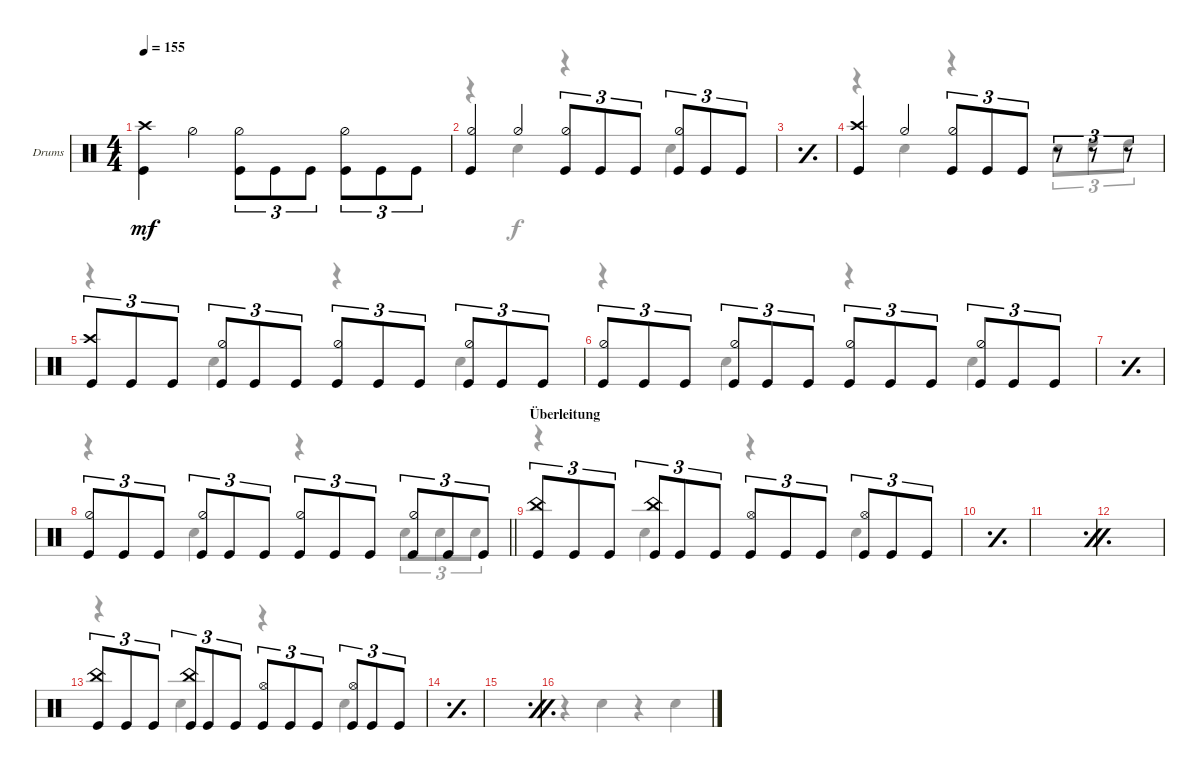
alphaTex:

\defaultSystemsLayout 4
\bracketExtendMode groupsimilarinstruments
\firstSystemTrackNameOrientation horizontal
\otherSystemsTrackNameOrientation horizontal
\track ("Drumkit" "Drums") {instrument percussion}
\staff {score}
\articulation defaults
\voice
\ts (4 4)
\tempo 155
\clef neutral
\ks c
("Kick (hit)" "Crash high (hit)").4{dy mf} "Hi-Hat (half)".4 ("Kick (hit)" "Hi-Hat (half)").8{tu (3 2)} "Kick (hit)".8{tu (3 2)} "Kick (hit)".8{tu (3 2)} ("Kick (hit)" "Hi-Hat (half)").8{tu (3 2)} "Kick (hit)".8{tu (3 2)} "Kick (hit)".8{tu (3 2)} |
("Kick (hit)" "Hi-Hat (half)").4 "Hi-Hat (half)".4 ("Kick (hit)" "Hi-Hat (half)").8{tu (3 2)} "Kick (hit)".8{tu (3 2)} "Kick (hit)".8{tu (3 2)} ("Kick (hit)" "Hi-Hat (half)").8{tu (3 2)} "Kick (hit)".8{tu (3 2)} "Kick (hit)".8{tu (3 2)} |
\simile simple
|
\simile none
("Kick (hit)" "Crash high (hit)").4 "Hi-Hat (half)".4 ("Kick (hit)" "Hi-Hat (half)").8{tu (3 2)} "Kick (hit)".8{tu (3 2)} "Kick (hit)".8{tu (3 2)} r.8{tu (3 2)} r.8{tu (3 2)} r.8{tu (3 2)} |
("Kick (hit)" "Crash high (hit)").8{tu (3 2)} "Kick (hit)".8{tu (3 2)} "Kick (hit)".8{tu (3 2)} ("Kick (hit)" "Hi-Hat (half)").8{tu (3 2)} "Kick (hit)".8{tu (3 2)} "Kick (hit)".8{tu (3 2)} ("Kick (hit)" "Hi-Hat (half)").8{tu (3 2)} "Kick (hit)".8{tu (3 2)} "Kick (hit)".8{tu (3 2)} ("Kick (hit)" "Hi-Hat (half)").8{tu (3 2)} "Kick (hit)".8{tu (3 2)} "Kick (hit)".8{tu (3 2)} |
("Kick (hit)" "Hi-Hat (half)").8{tu (3 2)} "Kick (hit)".8{tu (3 2)} "Kick (hit)".8{tu (3 2)} ("Kick (hit)" "Hi-Hat (half)").8{tu (3 2)} "Kick (hit)".8{tu (3 2)} "Kick (hit)".8{tu (3 2)} ("Kick (hit)" "Hi-Hat (half)").8{tu (3 2)} "Kick (hit)".8{tu (3 2)} "Kick (hit)".8{tu (3 2)} ("Kick (hit)" "Hi-Hat (half)").8{tu (3 2)} "Kick (hit)".8{tu (3 2)} "Kick (hit)".8{tu (3 2)} |
\simile simple
|
\simile none
\barLineRight lightlight
("Kick (hit)" "Hi-Hat (half)").8{tu (3 2)} "Kick (hit)".8{tu (3 2)} "Kick (hit)".8{tu (3 2)} ("Kick (hit)" "Hi-Hat (half)").8{tu (3 2)} "Kick (hit)".8{tu (3 2)} "Kick (hit)".8{tu (3 2)} ("Kick (hit)" "Hi-Hat (half)").8{tu (3 2)} "Kick (hit)".8{tu (3 2)} "Kick (hit)".8{tu (3 2)} ("Kick (hit)" "Hi-Hat (half)").8{tu (3 2)} "Kick (hit)".8{tu (3 2)} "Kick (hit)".8{tu (3 2)} |
\section ("" "Überleitung")
("Kick (hit)" "China (hit)").8{tu (3 2)} "Kick (hit)".8{tu (3 2)} "Kick (hit)".8{tu (3 2)} ("Kick (hit)" "China (hit)").8{tu (3 2)} "Kick (hit)".8{tu (3 2)} "Kick (hit)".8{tu (3 2)} ("Kick (hit)" "Hi-Hat (open)").8{tu (3 2)} "Kick (hit)".8{tu (3 2)} "Kick (hit)".8{tu (3 2)} ("Kick (hit)" "Hi-Hat (open)").8{tu (3 2)} "Kick (hit)".8{tu (3 2)} "Kick (hit)".8{tu (3 2)} |
\simile simple
|
\simile firstofdouble
|
\simile secondofdouble
|
\simile none
("Kick (hit)" "China (hit)").8{tu (3 2)} "Kick (hit)".8{tu (3 2)} "Kick (hit)".8{tu (3 2)} ("Kick (hit)" "China (hit)").8{tu (3 2)} "Kick (hit)".8{tu (3 2)} "Kick (hit)".8{tu (3 2)} ("Kick (hit)" "Hi-Hat (open)").8{tu (3 2)} "Kick (hit)".8{tu (3 2)} "Kick (hit)".8{tu (3 2)} ("Kick (hit)" "Hi-Hat (open)").8{tu (3 2)} "Kick (hit)".8{tu (3 2)} "Kick (hit)".8{tu (3 2)} |
\simile simple
|
\simile firstofdouble
|
\simile secondofdouble
\voice
\clef neutral
\ottava regular
\simile none
\ks c
r.4{dy ff} "Snare (hit) 2".4{dy f} r.4 "Snare (hit) 2".4 |
r.4 "Snare (hit) 2".4 r.4 "Snare (hit) 2".4 |
\simile simple
|
\simile none
r.4 "Snare (hit) 2".4 r.4 "Snare (hit) 2".8{tu (3 2)} "High Tom (hit)".8{tu (3 2)} "High Tom (hit)".8{tu (3 2)} |
r.4 "Snare (hit) 2".4 r.4 "Snare (hit) 2".4 |
r.4 "Snare (hit) 2".4 r.4 "Snare (hit) 2".4 |
\simile simple
|
\simile none
\barLineRight lightlight
r.4 "Snare (hit) 2".4 r.4 "Snare (hit) 2".8{tu (3 2)} "Snare (hit) 2".8{tu (3 2)} "Snare (hit) 2".8{tu (3 2)} |
r.4 "Snare (hit) 2".4 r.4 "Snare (hit) 2".4 |
\simile simple
|
\simile firstofdouble
|
\simile secondofdouble
|
\simile none
r.4 "Snare (hit) 2".4 r.4 "Snare (hit) 2".4 |
\simile simple
|
\simile firstofdouble
|
\simile secondofdouble
